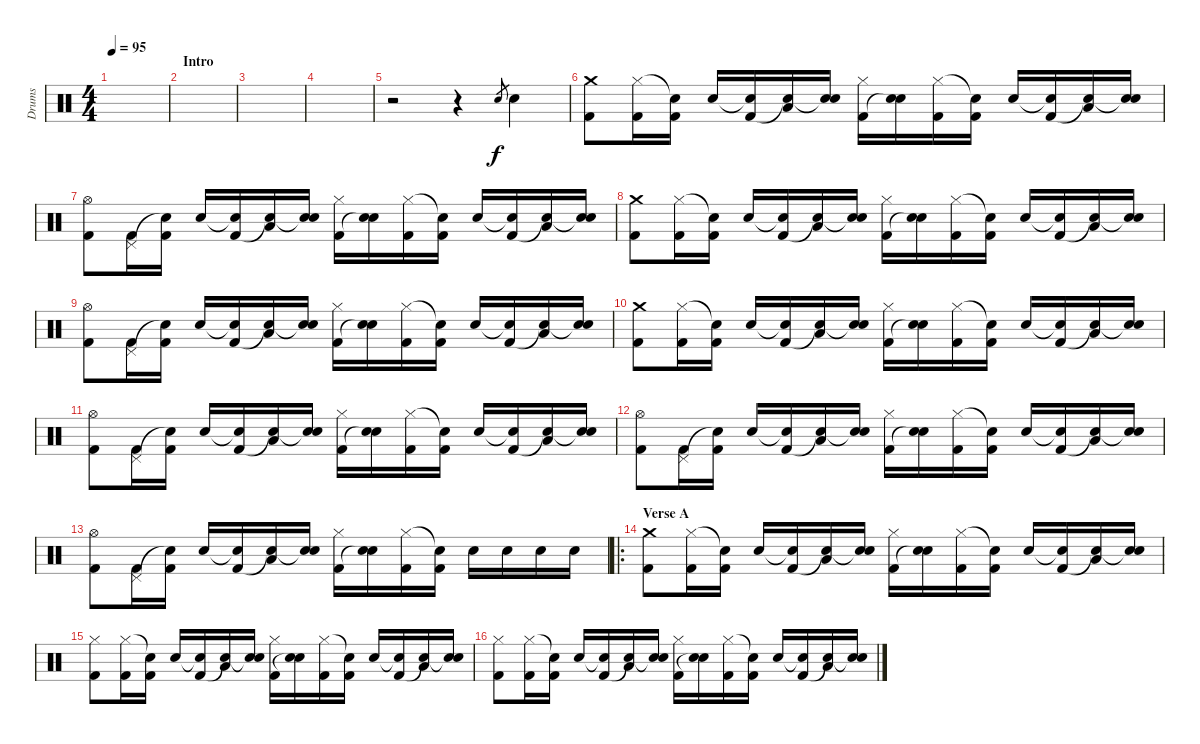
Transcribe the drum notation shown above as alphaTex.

\track ("Drums" "Drums") {instrument percussion}
\staff {score}
\articulation defaults
\ts (4 4)
\tempo 95
\clef neutral
\ks c
|
\section ("" "Intro")
|
|
|
r.2 r.4 "Electric Snare (hit)".8{gr} "Electric Snare (hit)".4 |
("Crash medium (hit)" "Kick (hit) 2").8 ("Hi-Hat (closed)" "Kick (hit) 2").16 ("Snare (hit)"{t} "Kick (hit) 2").16 "Electric Snare (hit)".16 ("Snare (hit)"{t} "Kick (hit) 2").16 ("Low Tom (hit)" "Snare (hit)"{t}).16 ("Electric Snare (hit)" "Snare (hit)"{t}).16 ("Hi-Hat (closed)" "Kick (hit) 2").16 ("Electric Snare (hit)" "Snare (hit)"{t}).16 ("Hi-Hat (closed)" "Kick (hit) 2").16 ("Snare (hit)"{t} "Kick (hit) 2").16 "Electric Snare (hit)".16 ("Snare (hit)"{t} "Kick (hit) 2").16 ("Low Tom (hit)" "Snare (hit)"{t}).16 ("Electric Snare (hit)" "Snare (hit)"{t}).16 |
("Hi-Hat (open)" "Kick (hit) 2").8 ("Pedal Hi-Hat (hit)" "Kick (hit) 2").16 ("Snare (hit)"{t} "Kick (hit) 2").16 "Electric Snare (hit)".16 ("Snare (hit)"{t} "Kick (hit) 2").16 ("Low Tom (hit)" "Snare (hit)"{t}).16 ("Electric Snare (hit)" "Snare (hit)"{t}).16 ("Hi-Hat (closed)" "Kick (hit) 2").16 ("Electric Snare (hit)" "Snare (hit)"{t}).16 ("Hi-Hat (closed)" "Kick (hit) 2").16 ("Snare (hit)"{t} "Kick (hit) 2").16 "Electric Snare (hit)".16 ("Snare (hit)"{t} "Kick (hit) 2").16 ("Low Tom (hit)" "Snare (hit)"{t}).16 ("Electric Snare (hit)" "Snare (hit)"{t}).16 |
("Crash medium (hit)" "Kick (hit) 2").8 ("Hi-Hat (closed)" "Kick (hit) 2").16 ("Snare (hit)"{t} "Kick (hit) 2").16 "Electric Snare (hit)".16 ("Snare (hit)"{t} "Kick (hit) 2").16 ("Low Tom (hit)" "Snare (hit)"{t}).16 ("Electric Snare (hit)" "Snare (hit)"{t}).16 ("Hi-Hat (closed)" "Kick (hit) 2").16 ("Electric Snare (hit)" "Snare (hit)"{t}).16 ("Hi-Hat (closed)" "Kick (hit) 2").16 ("Snare (hit)"{t} "Kick (hit) 2").16 "Electric Snare (hit)".16 ("Snare (hit)"{t} "Kick (hit) 2").16 ("Low Tom (hit)" "Snare (hit)"{t}).16 ("Electric Snare (hit)" "Snare (hit)"{t}).16 |
("Hi-Hat (open)" "Kick (hit) 2").8 ("Pedal Hi-Hat (hit)" "Kick (hit) 2").16 ("Snare (hit)"{t} "Kick (hit) 2").16 "Electric Snare (hit)".16 ("Snare (hit)"{t} "Kick (hit) 2").16 ("Low Tom (hit)" "Snare (hit)"{t}).16 ("Electric Snare (hit)" "Snare (hit)"{t}).16 ("Hi-Hat (closed)" "Kick (hit) 2").16 ("Electric Snare (hit)" "Snare (hit)"{t}).16 ("Hi-Hat (closed)" "Kick (hit) 2").16 ("Snare (hit)"{t} "Kick (hit) 2").16 "Electric Snare (hit)".16 ("Snare (hit)"{t} "Kick (hit) 2").16 ("Low Tom (hit)" "Snare (hit)"{t}).16 ("Electric Snare (hit)" "Snare (hit)"{t}).16 |
("Crash medium (hit)" "Kick (hit) 2").8 ("Hi-Hat (closed)" "Kick (hit) 2").16 ("Snare (hit)"{t} "Kick (hit) 2").16 "Electric Snare (hit)".16 ("Snare (hit)"{t} "Kick (hit) 2").16 ("Low Tom (hit)" "Snare (hit)"{t}).16 ("Electric Snare (hit)" "Snare (hit)"{t}).16 ("Hi-Hat (closed)" "Kick (hit) 2").16 ("Electric Snare (hit)" "Snare (hit)"{t}).16 ("Hi-Hat (closed)" "Kick (hit) 2").16 ("Snare (hit)"{t} "Kick (hit) 2").16 "Electric Snare (hit)".16 ("Snare (hit)"{t} "Kick (hit) 2").16 ("Low Tom (hit)" "Snare (hit)"{t}).16 ("Electric Snare (hit)" "Snare (hit)"{t}).16 |
("Hi-Hat (open)" "Kick (hit) 2").8 ("Pedal Hi-Hat (hit)" "Kick (hit) 2").16 ("Snare (hit)"{t} "Kick (hit) 2").16 "Electric Snare (hit)".16 ("Snare (hit)"{t} "Kick (hit) 2").16 ("Low Tom (hit)" "Snare (hit)"{t}).16 ("Electric Snare (hit)" "Snare (hit)"{t}).16 ("Hi-Hat (closed)" "Kick (hit) 2").16 ("Electric Snare (hit)" "Snare (hit)"{t}).16 ("Hi-Hat (closed)" "Kick (hit) 2").16 ("Snare (hit)"{t} "Kick (hit) 2").16 "Electric Snare (hit)".16 ("Snare (hit)"{t} "Kick (hit) 2").16 ("Low Tom (hit)" "Snare (hit)"{t}).16 ("Electric Snare (hit)" "Snare (hit)"{t}).16 |
("Hi-Hat (open)" "Kick (hit) 2").8 ("Pedal Hi-Hat (hit)" "Kick (hit) 2").16 ("Snare (hit)"{t} "Kick (hit) 2").16 "Electric Snare (hit)".16 ("Snare (hit)"{t} "Kick (hit) 2").16 ("Low Tom (hit)" "Snare (hit)"{t}).16 ("Electric Snare (hit)" "Snare (hit)"{t}).16 ("Hi-Hat (closed)" "Kick (hit) 2").16 ("Electric Snare (hit)" "Snare (hit)"{t}).16 ("Hi-Hat (closed)" "Kick (hit) 2").16 ("Snare (hit)"{t} "Kick (hit) 2").16 "Electric Snare (hit)".16 ("Snare (hit)"{t} "Kick (hit) 2").16 ("Low Tom (hit)" "Snare (hit)"{t}).16 ("Electric Snare (hit)" "Snare (hit)"{t}).16 |
("Hi-Hat (open)" "Kick (hit) 2").8 ("Pedal Hi-Hat (hit)" "Kick (hit) 2").16 ("Snare (hit)"{t} "Kick (hit) 2").16 "Electric Snare (hit)".16 ("Snare (hit)"{t} "Kick (hit) 2").16 ("Low Tom (hit)" "Snare (hit)"{t}).16 ("Electric Snare (hit)" "Snare (hit)"{t}).16 ("Hi-Hat (closed)" "Kick (hit) 2").16 ("Electric Snare (hit)" "Snare (hit)"{t}).16 ("Hi-Hat (closed)" "Kick (hit) 2").16 ("Snare (hit)"{t} "Kick (hit) 2").16 "Electric Snare (hit)".16 "Electric Snare (hit)".16 "Electric Snare (hit)".16 "Electric Snare (hit)".16 |
\ro
\section ("" "Verse A")
("Crash medium (hit)" "Kick (hit) 2").8 ("Hi-Hat (closed)" "Kick (hit) 2").16 ("Snare (hit)"{t} "Kick (hit) 2").16 "Electric Snare (hit)".16 ("Snare (hit)"{t} "Kick (hit) 2").16 ("Low Tom (hit)" "Snare (hit)"{t}).16 ("Electric Snare (hit)" "Snare (hit)"{t}).16 ("Hi-Hat (closed)" "Kick (hit) 2").16 ("Electric Snare (hit)" "Snare (hit)"{t}).16 ("Hi-Hat (closed)" "Kick (hit) 2").16 ("Snare (hit)"{t} "Kick (hit) 2").16 "Electric Snare (hit)".16 ("Snare (hit)"{t} "Kick (hit) 2").16 ("Low Tom (hit)" "Snare (hit)"{t}).16 ("Electric Snare (hit)" "Snare (hit)"{t}).16 |
("Hi-Hat (closed)" "Kick (hit) 2").8 ("Hi-Hat (closed)" "Kick (hit) 2").16 ("Snare (hit)"{t} "Kick (hit) 2").16 "Electric Snare (hit)".16 ("Snare (hit)"{t} "Kick (hit) 2").16 ("Low Tom (hit)" "Snare (hit)"{t}).16 ("Electric Snare (hit)" "Snare (hit)"{t}).16 ("Hi-Hat (closed)" "Kick (hit) 2").16 ("Electric Snare (hit)" "Snare (hit)"{t}).16 ("Hi-Hat (closed)" "Kick (hit) 2").16 ("Snare (hit)"{t} "Kick (hit) 2").16 "Electric Snare (hit)".16 ("Snare (hit)"{t} "Kick (hit) 2").16 ("Low Tom (hit)" "Snare (hit)"{t}).16 ("Electric Snare (hit)" "Snare (hit)"{t}).16 |
("Hi-Hat (closed)" "Kick (hit) 2").8 ("Hi-Hat (closed)" "Kick (hit) 2").16 ("Snare (hit)"{t} "Kick (hit) 2").16 "Electric Snare (hit)".16 ("Snare (hit)"{t} "Kick (hit) 2").16 ("Low Tom (hit)" "Snare (hit)"{t}).16 ("Electric Snare (hit)" "Snare (hit)"{t}).16 ("Hi-Hat (closed)" "Kick (hit) 2").16 ("Electric Snare (hit)" "Snare (hit)"{t}).16 ("Hi-Hat (closed)" "Kick (hit) 2").16 ("Snare (hit)"{t} "Kick (hit) 2").16 "Electric Snare (hit)".16 ("Snare (hit)"{t} "Kick (hit) 2").16 ("Low Tom (hit)" "Snare (hit)"{t}).16 ("Electric Snare (hit)" "Snare (hit)"{t}).16
